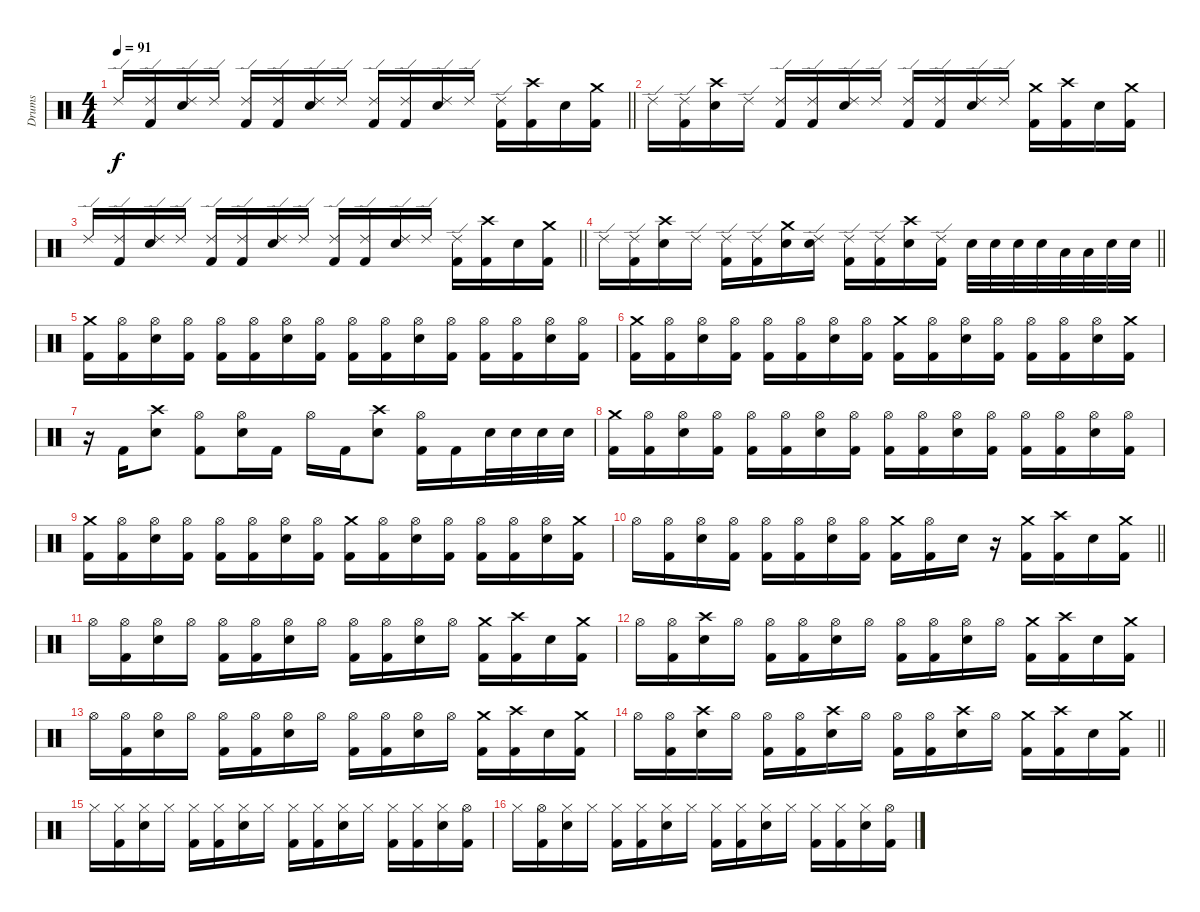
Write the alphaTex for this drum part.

\track ("Drums" "Drums") {instrument percussion}
\staff {score}
\articulation defaults
\ts (4 4)
\tempo 91
\clef neutral
\barLineRight lightlight
\ks c "Ride (edge) 2".16{dy f}
("Ride (edge) 2" "Kick (hit) 2").16 ("Ride (edge) 2" "Electric Snare (hit)").16 "Ride (edge) 2".16 ("Ride (edge) 2" "Kick (hit) 2").16 ("Ride (edge) 2" "Kick (hit) 2").16 ("Ride (edge) 2" "Electric Snare (hit)").16 "Ride (edge) 2".16 ("Ride (edge) 2" "Kick (hit) 2").16 ("Ride (edge) 2" "Kick (hit) 2").16 ("Ride (edge) 2" "Electric Snare (hit)").16 "Ride (edge) 2".16 ("Ride (edge) 2" "Kick (hit) 2").16 ("Crash high (hit)" "Kick (hit) 2").16 "Electric Snare (hit)".16 ("Crash medium (hit)" "Kick (hit) 2").16 |
"Ride (edge) 2".16 ("Ride (edge) 2" "Kick (hit) 2").16 ("Crash high (hit)" "Electric Snare (hit)").16 "Ride (edge) 2".16 ("Ride (edge) 2" "Kick (hit) 2").16 ("Ride (edge) 2" "Kick (hit) 2").16 ("Ride (edge) 2" "Electric Snare (hit)").16 "Ride (edge) 2".16 ("Ride (edge) 2" "Kick (hit) 2").16 ("Ride (edge) 2" "Kick (hit) 2").16 ("Ride (edge) 2" "Electric Snare (hit)").16 "Ride (edge) 2".16 ("Crash medium (hit)" "Kick (hit) 2").16 ("Crash high (hit)" "Kick (hit) 2").16 "Electric Snare (hit)".16 ("Crash medium (hit)" "Kick (hit) 2").16 |
\barLineRight lightlight "Ride (edge) 2".16
("Ride (edge) 2" "Kick (hit) 2").16 ("Ride (edge) 2" "Electric Snare (hit)").16 "Ride (edge) 2".16 ("Ride (edge) 2" "Kick (hit) 2").16 ("Ride (edge) 2" "Kick (hit) 2").16 ("Ride (edge) 2" "Electric Snare (hit)").16 "Ride (edge) 2".16 ("Ride (edge) 2" "Kick (hit) 2").16 ("Ride (edge) 2" "Kick (hit) 2").16 ("Ride (edge) 2" "Electric Snare (hit)").16 "Ride (edge) 2".16 ("Ride (edge) 2" "Kick (hit) 2").16 ("Crash high (hit)" "Kick (hit) 2").16 "Electric Snare (hit)".16 ("Crash medium (hit)" "Kick (hit) 2").16 |
\barLineRight lightlight "Ride (edge) 2".16
("Ride (edge) 2" "Kick (hit) 2").16 ("Crash high (hit)" "Electric Snare (hit)").16 "Ride (edge) 2".16 ("Ride (edge) 2" "Kick (hit) 2").16 ("Ride (edge) 2" "Kick (hit) 2").16 ("Crash medium (hit)" "Electric Snare (hit)").16 ("Ride (edge) 2" "Electric Snare (hit)").16 ("Ride (edge) 2" "Kick (hit) 2").16 ("Ride (edge) 2" "Kick (hit) 2").16 ("Crash high (hit)" "Electric Snare (hit)").16 ("Ride (edge) 2" "Kick (hit) 2").16 "Electric Snare (hit)".32 "Electric Snare (hit)".32 "Electric Snare (hit)".32 "Electric Snare (hit)".32 "Low Tom (hit)".32 "Low Tom (hit)".32 "Electric Snare (hit)".32 "Electric Snare (hit)".32 |
("Crash medium (hit)" "Kick (hit) 2").16 ("Hi-Hat (open)" "Kick (hit) 2").16 ("Hi-Hat (open)" "Electric Snare (hit)").16 ("Hi-Hat (open)" "Kick (hit) 2").16 ("Hi-Hat (open)" "Kick (hit) 2").16 ("Hi-Hat (open)" "Kick (hit) 2").16 ("Hi-Hat (open)" "Electric Snare (hit)").16 ("Hi-Hat (open)" "Kick (hit) 2").16 ("Hi-Hat (open)" "Kick (hit) 2").16 ("Hi-Hat (open)" "Kick (hit) 2").16 ("Hi-Hat (open)" "Electric Snare (hit)").16 ("Hi-Hat (open)" "Kick (hit) 2").16 ("Hi-Hat (open)" "Kick (hit) 2").16 ("Hi-Hat (open)" "Kick (hit) 2").16 ("Hi-Hat (open)" "Electric Snare (hit)").16 ("Hi-Hat (open)" "Kick (hit) 2").16 |
("Crash medium (hit)" "Kick (hit) 2").16 ("Hi-Hat (open)" "Kick (hit) 2").16 ("Hi-Hat (open)" "Electric Snare (hit)").16 ("Hi-Hat (open)" "Kick (hit) 2").16 ("Hi-Hat (open)" "Kick (hit) 2").16 ("Hi-Hat (open)" "Kick (hit) 2").16 ("Hi-Hat (open)" "Electric Snare (hit)").16 ("Hi-Hat (open)" "Kick (hit) 2").16 ("Crash medium (hit)" "Kick (hit) 2").16 ("Hi-Hat (open)" "Kick (hit) 2").16 ("Hi-Hat (open)" "Electric Snare (hit)").16 ("Hi-Hat (open)" "Kick (hit) 2").16 ("Hi-Hat (open)" "Kick (hit) 2").16 ("Hi-Hat (open)" "Kick (hit) 2").16 ("Hi-Hat (open)" "Electric Snare (hit)").16 ("Crash medium (hit)" "Kick (hit) 2").16 |
r.16 "Kick (hit) 2".16 ("Crash high (hit)" "Electric Snare (hit)").8 ("Hi-Hat (open)" "Kick (hit) 2").8 ("Hi-Hat (open)" "Electric Snare (hit)").16 "Kick (hit) 2".16 "Hi-Hat (open)".16 "Kick (hit) 2".16 ("Crash high (hit)" "Electric Snare (hit)").8 ("Hi-Hat (open)" "Kick (hit) 2").16 "Kick (hit) 2".16 "Electric Snare (hit)".32 "Electric Snare (hit)".32 "Electric Snare (hit)".32 "Electric Snare (hit)".32 |
("Crash medium (hit)" "Kick (hit) 2").16 ("Hi-Hat (open)" "Kick (hit) 2").16 ("Hi-Hat (open)" "Electric Snare (hit)").16 ("Hi-Hat (open)" "Kick (hit) 2").16 ("Hi-Hat (open)" "Kick (hit) 2").16 ("Hi-Hat (open)" "Kick (hit) 2").16 ("Hi-Hat (open)" "Electric Snare (hit)").16 ("Hi-Hat (open)" "Kick (hit) 2").16 ("Hi-Hat (open)" "Kick (hit) 2").16 ("Hi-Hat (open)" "Kick (hit) 2").16 ("Hi-Hat (open)" "Electric Snare (hit)").16 ("Hi-Hat (open)" "Kick (hit) 2").16 ("Hi-Hat (open)" "Kick (hit) 2").16 ("Hi-Hat (open)" "Kick (hit) 2").16 ("Hi-Hat (open)" "Electric Snare (hit)").16 ("Hi-Hat (open)" "Kick (hit) 2").16 |
("Crash medium (hit)" "Kick (hit) 2").16 ("Hi-Hat (open)" "Kick (hit) 2").16 ("Hi-Hat (open)" "Electric Snare (hit)").16 ("Hi-Hat (open)" "Kick (hit) 2").16 ("Hi-Hat (open)" "Kick (hit) 2").16 ("Hi-Hat (open)" "Kick (hit) 2").16 ("Hi-Hat (open)" "Electric Snare (hit)").16 ("Hi-Hat (open)" "Kick (hit) 2").16 ("Crash medium (hit)" "Kick (hit) 2").16 ("Hi-Hat (open)" "Kick (hit) 2").16 ("Hi-Hat (open)" "Electric Snare (hit)").16 ("Hi-Hat (open)" "Kick (hit) 2").16 ("Hi-Hat (open)" "Kick (hit) 2").16 ("Hi-Hat (open)" "Kick (hit) 2").16 ("Hi-Hat (open)" "Electric Snare (hit)").16 ("Crash medium (hit)" "Kick (hit) 2").16 |
\barLineRight lightlight "Hi-Hat (open)".16
("Hi-Hat (open)" "Kick (hit) 2").16 ("Hi-Hat (open)" "Electric Snare (hit)").16 ("Hi-Hat (open)" "Kick (hit) 2").16 ("Hi-Hat (open)" "Kick (hit) 2").16 ("Hi-Hat (open)" "Kick (hit) 2").16 ("Hi-Hat (open)" "Electric Snare (hit)").16 ("Hi-Hat (open)" "Kick (hit) 2").16 ("Crash medium (hit)" "Kick (hit) 2").16 ("Hi-Hat (open)" "Kick (hit) 2").16 "Electric Snare (hit)".16 r.16 ("Crash medium (hit)" "Kick (hit) 2").16 ("Crash high (hit)" "Kick (hit) 2").16 "Electric Snare (hit)".16 ("Crash medium (hit)" "Kick (hit) 2").16 |
"Hi-Hat (open)".16 ("Hi-Hat (open)" "Kick (hit) 2").16 ("Hi-Hat (open)" "Electric Snare (hit)").16 "Hi-Hat (open)".16 ("Hi-Hat (open)" "Kick (hit) 2").16 ("Hi-Hat (open)" "Kick (hit) 2").16 ("Hi-Hat (open)" "Electric Snare (hit)").16 "Hi-Hat (open)".16 ("Hi-Hat (open)" "Kick (hit) 2").16 ("Hi-Hat (open)" "Kick (hit) 2").16 ("Hi-Hat (open)" "Electric Snare (hit)").16 "Hi-Hat (open)".16 ("Crash medium (hit)" "Kick (hit) 2").16 ("Crash high (hit)" "Kick (hit) 2").16 "Electric Snare (hit)".16 ("Crash medium (hit)" "Kick (hit) 2").16 |
"Hi-Hat (open)".16 ("Hi-Hat (open)" "Kick (hit) 2").16 ("Crash high (hit)" "Electric Snare (hit)").16 "Hi-Hat (open)".16 ("Hi-Hat (open)" "Kick (hit) 2").16 ("Hi-Hat (open)" "Kick (hit) 2").16 ("Hi-Hat (open)" "Electric Snare (hit)").16 "Hi-Hat (open)".16 ("Hi-Hat (open)" "Kick (hit) 2").16 ("Hi-Hat (open)" "Kick (hit) 2").16 ("Hi-Hat (open)" "Electric Snare (hit)").16 "Hi-Hat (open)".16 ("Crash medium (hit)" "Kick (hit) 2").16 ("Crash high (hit)" "Kick (hit) 2").16 "Electric Snare (hit)".16 ("Crash medium (hit)" "Kick (hit) 2").16 |
"Hi-Hat (open)".16 ("Hi-Hat (open)" "Kick (hit) 2").16 ("Hi-Hat (open)" "Electric Snare (hit)").16 "Hi-Hat (open)".16 ("Hi-Hat (open)" "Kick (hit) 2").16 ("Hi-Hat (open)" "Kick (hit) 2").16 ("Hi-Hat (open)" "Electric Snare (hit)").16 "Hi-Hat (open)".16 ("Hi-Hat (open)" "Kick (hit) 2").16 ("Hi-Hat (open)" "Kick (hit) 2").16 ("Hi-Hat (open)" "Electric Snare (hit)").16 "Hi-Hat (open)".16 ("Crash medium (hit)" "Kick (hit) 2").16 ("Crash high (hit)" "Kick (hit) 2").16 "Electric Snare (hit)".16 ("Crash medium (hit)" "Kick (hit) 2").16 |
\barLineRight lightlight "Hi-Hat (open)".16
("Hi-Hat (open)" "Kick (hit) 2").16 ("Crash high (hit)" "Electric Snare (hit)").16 "Hi-Hat (open)".16 ("Hi-Hat (open)" "Kick (hit) 2").16 ("Hi-Hat (open)" "Kick (hit) 2").16 ("Crash high (hit)" "Electric Snare (hit)").16 "Hi-Hat (open)".16 ("Hi-Hat (open)" "Kick (hit) 2").16 ("Hi-Hat (open)" "Kick (hit) 2").16 ("Crash high (hit)" "Electric Snare (hit)").16 "Hi-Hat (open)".16 ("Crash medium (hit)" "Kick (hit) 2").16 ("Crash high (hit)" "Kick (hit) 2").16 "Electric Snare (hit)".16 ("Crash medium (hit)" "Kick (hit) 2").16 |
"Hi-Hat (closed)".16 ("Hi-Hat (closed)" "Kick (hit) 2").16 ("Hi-Hat (closed)" "Electric Snare (hit)").16 "Hi-Hat (closed)".16 ("Hi-Hat (closed)" "Kick (hit) 2").16 ("Hi-Hat (closed)" "Kick (hit) 2").16 ("Hi-Hat (closed)" "Electric Snare (hit)").16 "Hi-Hat (closed)".16 ("Hi-Hat (closed)" "Kick (hit) 2").16 ("Hi-Hat (closed)" "Kick (hit) 2").16 ("Hi-Hat (closed)" "Electric Snare (hit)").16 "Hi-Hat (closed)".16 ("Hi-Hat (closed)" "Kick (hit) 2").16 ("Hi-Hat (closed)" "Kick (hit) 2").16 ("Hi-Hat (closed)" "Electric Snare (hit)").16 ("Hi-Hat (open)" "Kick (hit) 2").16 |
"Hi-Hat (closed)".16 ("Hi-Hat (open)" "Kick (hit) 2").16 ("Hi-Hat (closed)" "Electric Snare (hit)").16 "Hi-Hat (closed)".16 ("Hi-Hat (closed)" "Kick (hit) 2").16 ("Hi-Hat (closed)" "Kick (hit) 2").16 ("Hi-Hat (closed)" "Electric Snare (hit)").16 "Hi-Hat (closed)".16 ("Hi-Hat (closed)" "Kick (hit) 2").16 ("Hi-Hat (closed)" "Kick (hit) 2").16 ("Hi-Hat (closed)" "Electric Snare (hit)").16 "Hi-Hat (closed)".16 ("Hi-Hat (closed)" "Kick (hit) 2").16 ("Hi-Hat (closed)" "Kick (hit) 2").16 ("Hi-Hat (closed)" "Electric Snare (hit)").16 ("Hi-Hat (open)" "Kick (hit) 2").16
